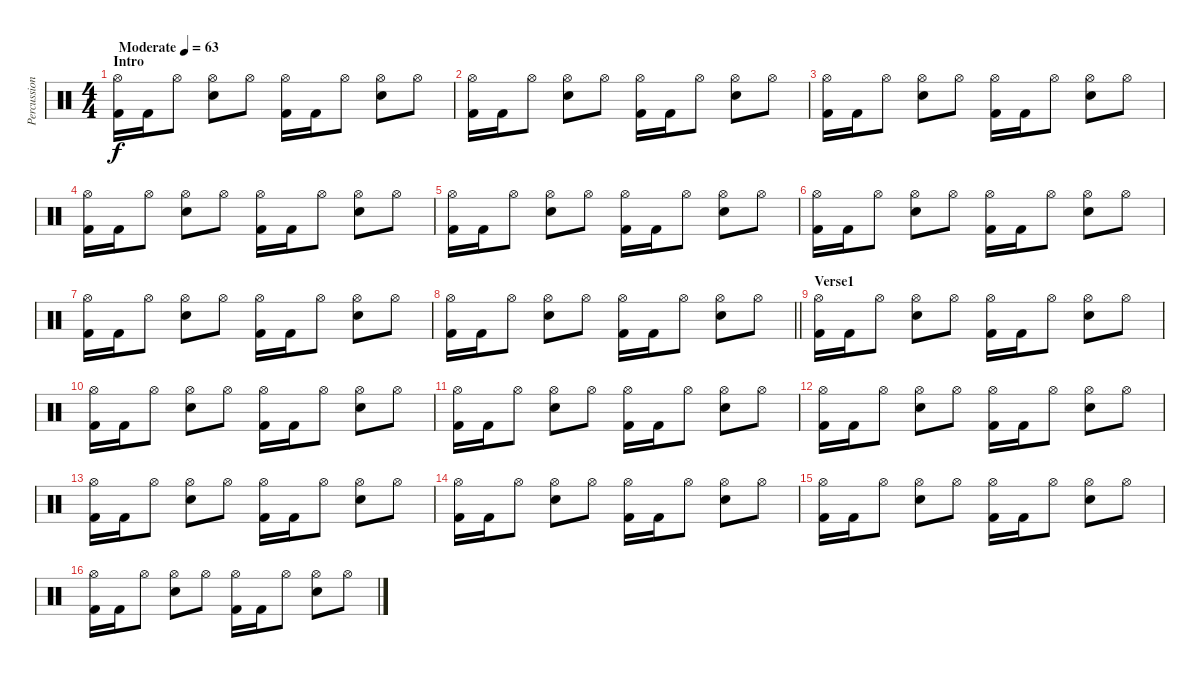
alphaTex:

\track ("Percussion" "Percussion") {instrument percussion}
\staff {score}
\articulation defaults
\ts (4 4)
\section ("" "Intro")
\tempo (63 "Moderate")
\clef neutral
\ks c
("Hi-Hat (open)" "Kick (hit) 2").16{dy f} "Kick (hit) 2".16 "Hi-Hat (open)".8 ("Hi-Hat (open)" "Electric Snare (hit)").8 "Hi-Hat (open)".8 ("Hi-Hat (open)" "Kick (hit) 2").16 "Kick (hit) 2".16 "Hi-Hat (open)".8 ("Hi-Hat (open)" "Electric Snare (hit)").8 "Hi-Hat (open)".8 |
("Hi-Hat (open)" "Kick (hit) 2").16 "Kick (hit) 2".16 "Hi-Hat (open)".8 ("Hi-Hat (open)" "Electric Snare (hit)").8 "Hi-Hat (open)".8 ("Hi-Hat (open)" "Kick (hit) 2").16 "Kick (hit) 2".16 "Hi-Hat (open)".8 ("Hi-Hat (open)" "Electric Snare (hit)").8 "Hi-Hat (open)".8 |
("Hi-Hat (open)" "Kick (hit) 2").16 "Kick (hit) 2".16 "Hi-Hat (open)".8 ("Hi-Hat (open)" "Electric Snare (hit)").8 "Hi-Hat (open)".8 ("Hi-Hat (open)" "Kick (hit) 2").16 "Kick (hit) 2".16 "Hi-Hat (open)".8 ("Hi-Hat (open)" "Electric Snare (hit)").8 "Hi-Hat (open)".8 |
("Hi-Hat (open)" "Kick (hit) 2").16 "Kick (hit) 2".16 "Hi-Hat (open)".8 ("Hi-Hat (open)" "Electric Snare (hit)").8 "Hi-Hat (open)".8 ("Hi-Hat (open)" "Kick (hit) 2").16 "Kick (hit) 2".16 "Hi-Hat (open)".8 ("Hi-Hat (open)" "Electric Snare (hit)").8 "Hi-Hat (open)".8 |
("Hi-Hat (open)" "Kick (hit) 2").16 "Kick (hit) 2".16 "Hi-Hat (open)".8 ("Hi-Hat (open)" "Electric Snare (hit)").8 "Hi-Hat (open)".8 ("Hi-Hat (open)" "Kick (hit) 2").16 "Kick (hit) 2".16 "Hi-Hat (open)".8 ("Hi-Hat (open)" "Electric Snare (hit)").8 "Hi-Hat (open)".8 |
("Hi-Hat (open)" "Kick (hit) 2").16 "Kick (hit) 2".16 "Hi-Hat (open)".8 ("Hi-Hat (open)" "Electric Snare (hit)").8 "Hi-Hat (open)".8 ("Hi-Hat (open)" "Kick (hit) 2").16 "Kick (hit) 2".16 "Hi-Hat (open)".8 ("Hi-Hat (open)" "Electric Snare (hit)").8 "Hi-Hat (open)".8 |
("Hi-Hat (open)" "Kick (hit) 2").16 "Kick (hit) 2".16 "Hi-Hat (open)".8 ("Hi-Hat (open)" "Electric Snare (hit)").8 "Hi-Hat (open)".8 ("Hi-Hat (open)" "Kick (hit) 2").16 "Kick (hit) 2".16 "Hi-Hat (open)".8 ("Hi-Hat (open)" "Electric Snare (hit)").8 "Hi-Hat (open)".8 |
\barLineRight lightlight
("Hi-Hat (open)" "Kick (hit) 2").16 "Kick (hit) 2".16 "Hi-Hat (open)".8 ("Hi-Hat (open)" "Electric Snare (hit)").8 "Hi-Hat (open)".8 ("Hi-Hat (open)" "Kick (hit) 2").16 "Kick (hit) 2".16 "Hi-Hat (open)".8 ("Hi-Hat (open)" "Electric Snare (hit)").8 "Hi-Hat (open)".8 |
\section ("" "Verse1")
("Hi-Hat (open)" "Kick (hit) 2").16 "Kick (hit) 2".16 "Hi-Hat (open)".8 ("Hi-Hat (open)" "Electric Snare (hit)").8 "Hi-Hat (open)".8 ("Hi-Hat (open)" "Kick (hit) 2").16 "Kick (hit) 2".16 "Hi-Hat (open)".8 ("Hi-Hat (open)" "Electric Snare (hit)").8 "Hi-Hat (open)".8 |
("Hi-Hat (open)" "Kick (hit) 2").16 "Kick (hit) 2".16 "Hi-Hat (open)".8 ("Hi-Hat (open)" "Electric Snare (hit)").8 "Hi-Hat (open)".8 ("Hi-Hat (open)" "Kick (hit) 2").16 "Kick (hit) 2".16 "Hi-Hat (open)".8 ("Hi-Hat (open)" "Electric Snare (hit)").8 "Hi-Hat (open)".8 |
("Hi-Hat (open)" "Kick (hit) 2").16 "Kick (hit) 2".16 "Hi-Hat (open)".8 ("Hi-Hat (open)" "Electric Snare (hit)").8 "Hi-Hat (open)".8 ("Hi-Hat (open)" "Kick (hit) 2").16 "Kick (hit) 2".16 "Hi-Hat (open)".8 ("Hi-Hat (open)" "Electric Snare (hit)").8 "Hi-Hat (open)".8 |
("Hi-Hat (open)" "Kick (hit) 2").16 "Kick (hit) 2".16 "Hi-Hat (open)".8 ("Hi-Hat (open)" "Electric Snare (hit)").8 "Hi-Hat (open)".8 ("Hi-Hat (open)" "Kick (hit) 2").16 "Kick (hit) 2".16 "Hi-Hat (open)".8 ("Hi-Hat (open)" "Electric Snare (hit)").8 "Hi-Hat (open)".8 |
("Hi-Hat (open)" "Kick (hit) 2").16 "Kick (hit) 2".16 "Hi-Hat (open)".8 ("Hi-Hat (open)" "Electric Snare (hit)").8 "Hi-Hat (open)".8 ("Hi-Hat (open)" "Kick (hit) 2").16 "Kick (hit) 2".16 "Hi-Hat (open)".8 ("Hi-Hat (open)" "Electric Snare (hit)").8 "Hi-Hat (open)".8 |
("Hi-Hat (open)" "Kick (hit) 2").16 "Kick (hit) 2".16 "Hi-Hat (open)".8 ("Hi-Hat (open)" "Electric Snare (hit)").8 "Hi-Hat (open)".8 ("Hi-Hat (open)" "Kick (hit) 2").16 "Kick (hit) 2".16 "Hi-Hat (open)".8 ("Hi-Hat (open)" "Electric Snare (hit)").8 "Hi-Hat (open)".8 |
("Hi-Hat (open)" "Kick (hit) 2").16 "Kick (hit) 2".16 "Hi-Hat (open)".8 ("Hi-Hat (open)" "Electric Snare (hit)").8 "Hi-Hat (open)".8 ("Hi-Hat (open)" "Kick (hit) 2").16 "Kick (hit) 2".16 "Hi-Hat (open)".8 ("Hi-Hat (open)" "Electric Snare (hit)").8 "Hi-Hat (open)".8 |
("Hi-Hat (open)" "Kick (hit) 2").16 "Kick (hit) 2".16 "Hi-Hat (open)".8 ("Hi-Hat (open)" "Electric Snare (hit)").8 "Hi-Hat (open)".8 ("Hi-Hat (open)" "Kick (hit) 2").16 "Kick (hit) 2".16 "Hi-Hat (open)".8 ("Hi-Hat (open)" "Electric Snare (hit)").8 "Hi-Hat (open)".8
